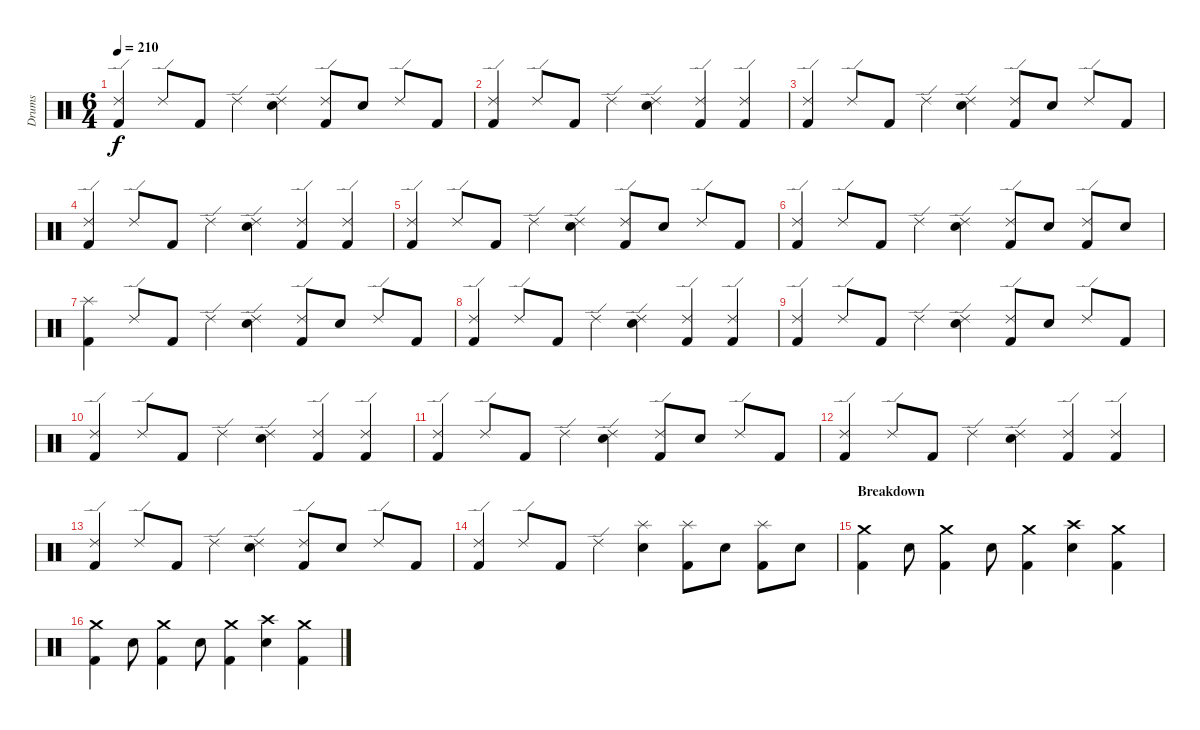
\track ("Drums" "Drums") {instrument percussion}
\staff {score}
\articulation defaults
\ts (6 4)
\tempo 210
\clef neutral
\ks c
("Ride (edge) 2" "Kick (hit) 2").4{dy f} "Ride (edge) 2".8 "Kick (hit) 2".8 "Ride (edge) 2".4 ("Ride (edge) 2" "Electric Snare (hit)").4 ("Ride (edge) 2" "Kick (hit) 2").8 "Electric Snare (hit)".8 "Ride (edge) 2".8 "Kick (hit) 2".8 |
("Ride (edge) 2" "Kick (hit) 2").4 "Ride (edge) 2".8 "Kick (hit) 2".8 "Ride (edge) 2".4 ("Ride (edge) 2" "Electric Snare (hit)").4 ("Ride (edge) 2" "Kick (hit) 2").4 ("Ride (edge) 2" "Kick (hit) 2").4 |
("Ride (edge) 2" "Kick (hit) 2").4 "Ride (edge) 2".8 "Kick (hit) 2".8 "Ride (edge) 2".4 ("Ride (edge) 2" "Electric Snare (hit)").4 ("Ride (edge) 2" "Kick (hit) 2").8 "Electric Snare (hit)".8 "Ride (edge) 2".8 "Kick (hit) 2".8 |
("Ride (edge) 2" "Kick (hit) 2").4 "Ride (edge) 2".8 "Kick (hit) 2".8 "Ride (edge) 2".4 ("Ride (edge) 2" "Electric Snare (hit)").4 ("Ride (edge) 2" "Kick (hit) 2").4 ("Ride (edge) 2" "Kick (hit) 2").4 |
("Ride (edge) 2" "Kick (hit) 2").4 "Ride (edge) 2".8 "Kick (hit) 2".8 "Ride (edge) 2".4 ("Ride (edge) 2" "Electric Snare (hit)").4 ("Ride (edge) 2" "Kick (hit) 2").8 "Electric Snare (hit)".8 "Ride (edge) 2".8 "Kick (hit) 2".8 |
("Ride (edge) 2" "Kick (hit) 2").4 "Ride (edge) 2".8 "Kick (hit) 2".8 "Ride (edge) 2".4 ("Ride (edge) 2" "Electric Snare (hit)").4 ("Ride (edge) 2" "Kick (hit) 2").8 "Electric Snare (hit)".8 ("Ride (edge) 2" "Kick (hit) 2").8 "Electric Snare (hit)".8 |
("Splash (hit)" "Kick (hit) 2").4 "Ride (edge) 2".8 "Kick (hit) 2".8 "Ride (edge) 2".4 ("Ride (edge) 2" "Electric Snare (hit)").4 ("Ride (edge) 2" "Kick (hit) 2").8 "Electric Snare (hit)".8 "Ride (edge) 2".8 "Kick (hit) 2".8 |
("Ride (edge) 2" "Kick (hit) 2").4 "Ride (edge) 2".8 "Kick (hit) 2".8 "Ride (edge) 2".4 ("Ride (edge) 2" "Electric Snare (hit)").4 ("Ride (edge) 2" "Kick (hit) 2").4 ("Ride (edge) 2" "Kick (hit) 2").4 |
("Ride (edge) 2" "Kick (hit) 2").4 "Ride (edge) 2".8 "Kick (hit) 2".8 "Ride (edge) 2".4 ("Ride (edge) 2" "Electric Snare (hit)").4 ("Ride (edge) 2" "Kick (hit) 2").8 "Electric Snare (hit)".8 "Ride (edge) 2".8 "Kick (hit) 2".8 |
("Ride (edge) 2" "Kick (hit) 2").4 "Ride (edge) 2".8 "Kick (hit) 2".8 "Ride (edge) 2".4 ("Ride (edge) 2" "Electric Snare (hit)").4 ("Ride (edge) 2" "Kick (hit) 2").4 ("Ride (edge) 2" "Kick (hit) 2").4 |
("Ride (edge) 2" "Kick (hit) 2").4 "Ride (edge) 2".8 "Kick (hit) 2".8 "Ride (edge) 2".4 ("Ride (edge) 2" "Electric Snare (hit)").4 ("Ride (edge) 2" "Kick (hit) 2").8 "Electric Snare (hit)".8 "Ride (edge) 2".8 "Kick (hit) 2".8 |
("Ride (edge) 2" "Kick (hit) 2").4 "Ride (edge) 2".8 "Kick (hit) 2".8 "Ride (edge) 2".4 ("Ride (edge) 2" "Electric Snare (hit)").4 ("Ride (edge) 2" "Kick (hit) 2").4 ("Ride (edge) 2" "Kick (hit) 2").4 |
("Ride (edge) 2" "Kick (hit) 2").4 "Ride (edge) 2".8 "Kick (hit) 2".8 "Ride (edge) 2".4 ("Ride (edge) 2" "Electric Snare (hit)").4 ("Ride (edge) 2" "Kick (hit) 2").8 "Electric Snare (hit)".8 "Ride (edge) 2".8 "Kick (hit) 2".8 |
("Ride (edge) 2" "Kick (hit) 2").4 "Ride (edge) 2".8 "Kick (hit) 2".8 "Ride (edge) 2".4 ("Splash (hit)" "Electric Snare (hit)").4 ("Splash (hit)" "Kick (hit) 2").8 "Electric Snare (hit)".8 ("Splash (hit)" "Kick (hit) 2").8 "Electric Snare (hit)".8 |
\section ("" "Breakdown")
("Crash medium (hit)" "Kick (hit) 2").4 "Electric Snare (hit)".8 ("Crash medium (hit)" "Kick (hit) 2").4 "Electric Snare (hit)".8 ("Crash medium (hit)" "Kick (hit) 2").4 ("Crash high (hit)" "Electric Snare (hit)").4 ("Crash medium (hit)" "Kick (hit) 2").4 |
("Crash medium (hit)" "Kick (hit) 2").4 "Electric Snare (hit)".8 ("Crash medium (hit)" "Kick (hit) 2").4 "Electric Snare (hit)".8 ("Crash medium (hit)" "Kick (hit) 2").4 ("Crash high (hit)" "Electric Snare (hit)").4 ("Crash medium (hit)" "Kick (hit) 2").4
